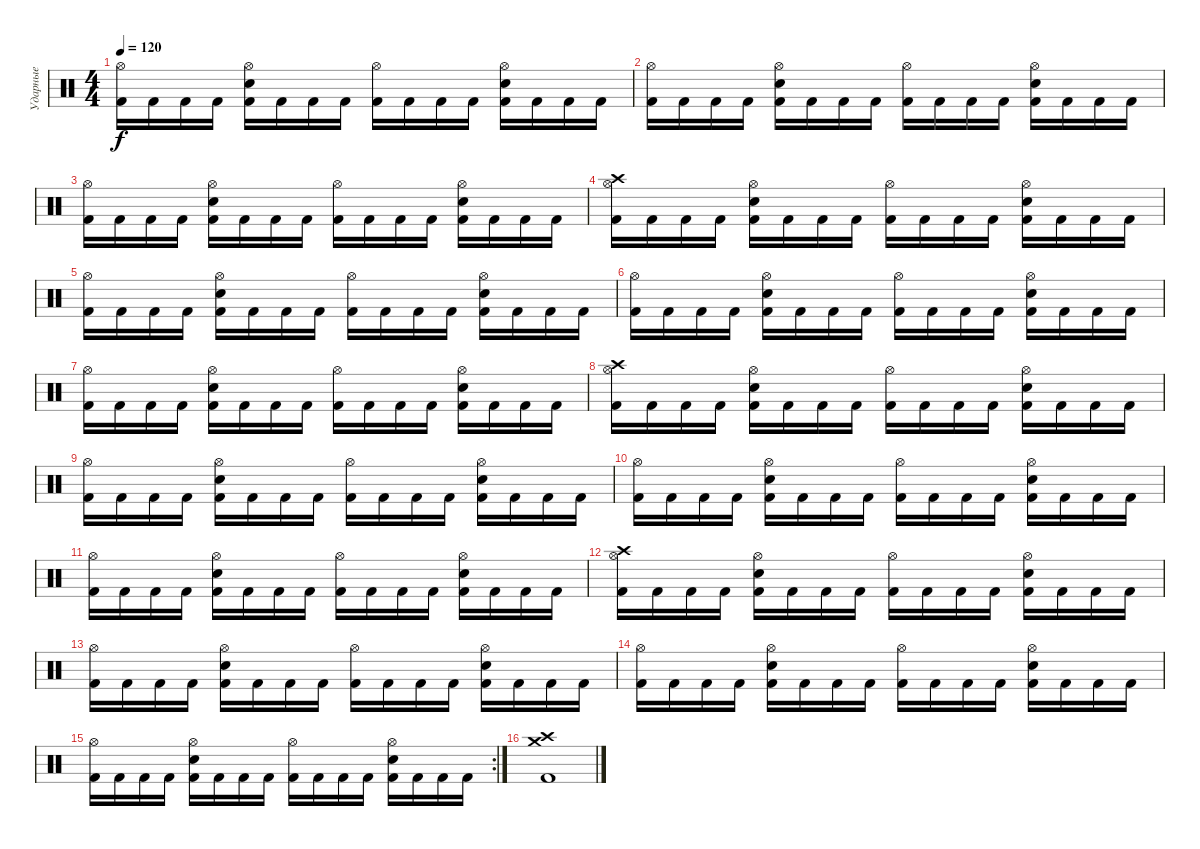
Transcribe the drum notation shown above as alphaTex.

\track ("Ударные" "Ударные") {instrument percussion}
\staff {score}
\articulation defaults
\ts (4 4)
\tempo 120
\clef neutral
\ks c
("Hi-Hat (open)" "Kick (hit) 2").16{dy f} "Kick (hit) 2".16 "Kick (hit) 2".16 "Kick (hit) 2".16 ("Hi-Hat (open)" "Snare (hit) 2" "Kick (hit) 2").16 "Kick (hit) 2".16 "Kick (hit) 2".16 "Kick (hit) 2".16 ("Hi-Hat (open)" "Kick (hit) 2").16 "Kick (hit) 2".16 "Kick (hit) 2".16 "Kick (hit) 2".16 ("Hi-Hat (open)" "Snare (hit) 2" "Kick (hit) 2").16 "Kick (hit) 2".16 "Kick (hit) 2".16 "Kick (hit) 2".16 |
("Hi-Hat (open)" "Kick (hit) 2").16 "Kick (hit) 2".16 "Kick (hit) 2".16 "Kick (hit) 2".16 ("Hi-Hat (open)" "Snare (hit) 2" "Kick (hit) 2").16 "Kick (hit) 2".16 "Kick (hit) 2".16 "Kick (hit) 2".16 ("Hi-Hat (open)" "Kick (hit) 2").16 "Kick (hit) 2".16 "Kick (hit) 2".16 "Kick (hit) 2".16 ("Hi-Hat (open)" "Snare (hit) 2" "Kick (hit) 2").16 "Kick (hit) 2".16 "Kick (hit) 2".16 "Kick (hit) 2".16 |
("Hi-Hat (open)" "Kick (hit) 2").16 "Kick (hit) 2".16 "Kick (hit) 2".16 "Kick (hit) 2".16 ("Hi-Hat (open)" "Snare (hit) 2" "Kick (hit) 2").16 "Kick (hit) 2".16 "Kick (hit) 2".16 "Kick (hit) 2".16 ("Hi-Hat (open)" "Kick (hit) 2").16 "Kick (hit) 2".16 "Kick (hit) 2".16 "Kick (hit) 2".16 ("Hi-Hat (open)" "Snare (hit) 2" "Kick (hit) 2").16 "Kick (hit) 2".16 "Kick (hit) 2".16 "Kick (hit) 2".16 |
("Hi-Hat (open)" "Crash high (hit)" "Kick (hit) 2").16 "Kick (hit) 2".16 "Kick (hit) 2".16 "Kick (hit) 2".16 ("Hi-Hat (open)" "Snare (hit) 2" "Kick (hit) 2").16 "Kick (hit) 2".16 "Kick (hit) 2".16 "Kick (hit) 2".16 ("Hi-Hat (open)" "Kick (hit) 2").16 "Kick (hit) 2".16 "Kick (hit) 2".16 "Kick (hit) 2".16 ("Hi-Hat (open)" "Snare (hit) 2" "Kick (hit) 2").16 "Kick (hit) 2".16 "Kick (hit) 2".16 "Kick (hit) 2".16 |
("Hi-Hat (open)" "Kick (hit) 2").16 "Kick (hit) 2".16 "Kick (hit) 2".16 "Kick (hit) 2".16 ("Hi-Hat (open)" "Snare (hit) 2" "Kick (hit) 2").16 "Kick (hit) 2".16 "Kick (hit) 2".16 "Kick (hit) 2".16 ("Hi-Hat (open)" "Kick (hit) 2").16 "Kick (hit) 2".16 "Kick (hit) 2".16 "Kick (hit) 2".16 ("Hi-Hat (open)" "Snare (hit) 2" "Kick (hit) 2").16 "Kick (hit) 2".16 "Kick (hit) 2".16 "Kick (hit) 2".16 |
("Hi-Hat (open)" "Kick (hit) 2").16 "Kick (hit) 2".16 "Kick (hit) 2".16 "Kick (hit) 2".16 ("Hi-Hat (open)" "Snare (hit) 2" "Kick (hit) 2").16 "Kick (hit) 2".16 "Kick (hit) 2".16 "Kick (hit) 2".16 ("Hi-Hat (open)" "Kick (hit) 2").16 "Kick (hit) 2".16 "Kick (hit) 2".16 "Kick (hit) 2".16 ("Hi-Hat (open)" "Snare (hit) 2" "Kick (hit) 2").16 "Kick (hit) 2".16 "Kick (hit) 2".16 "Kick (hit) 2".16 |
("Hi-Hat (open)" "Kick (hit) 2").16 "Kick (hit) 2".16 "Kick (hit) 2".16 "Kick (hit) 2".16 ("Hi-Hat (open)" "Snare (hit) 2" "Kick (hit) 2").16 "Kick (hit) 2".16 "Kick (hit) 2".16 "Kick (hit) 2".16 ("Hi-Hat (open)" "Kick (hit) 2").16 "Kick (hit) 2".16 "Kick (hit) 2".16 "Kick (hit) 2".16 ("Hi-Hat (open)" "Snare (hit) 2" "Kick (hit) 2").16 "Kick (hit) 2".16 "Kick (hit) 2".16 "Kick (hit) 2".16 |
("Hi-Hat (open)" "Crash high (hit)" "Kick (hit) 2").16 "Kick (hit) 2".16 "Kick (hit) 2".16 "Kick (hit) 2".16 ("Hi-Hat (open)" "Snare (hit) 2" "Kick (hit) 2").16 "Kick (hit) 2".16 "Kick (hit) 2".16 "Kick (hit) 2".16 ("Hi-Hat (open)" "Kick (hit) 2").16 "Kick (hit) 2".16 "Kick (hit) 2".16 "Kick (hit) 2".16 ("Hi-Hat (open)" "Snare (hit) 2" "Kick (hit) 2").16 "Kick (hit) 2".16 "Kick (hit) 2".16 "Kick (hit) 2".16 |
("Hi-Hat (open)" "Kick (hit) 2").16 "Kick (hit) 2".16 "Kick (hit) 2".16 "Kick (hit) 2".16 ("Hi-Hat (open)" "Snare (hit) 2" "Kick (hit) 2").16 "Kick (hit) 2".16 "Kick (hit) 2".16 "Kick (hit) 2".16 ("Hi-Hat (open)" "Kick (hit) 2").16 "Kick (hit) 2".16 "Kick (hit) 2".16 "Kick (hit) 2".16 ("Hi-Hat (open)" "Snare (hit) 2" "Kick (hit) 2").16 "Kick (hit) 2".16 "Kick (hit) 2".16 "Kick (hit) 2".16 |
("Hi-Hat (open)" "Kick (hit) 2").16 "Kick (hit) 2".16 "Kick (hit) 2".16 "Kick (hit) 2".16 ("Hi-Hat (open)" "Snare (hit) 2" "Kick (hit) 2").16 "Kick (hit) 2".16 "Kick (hit) 2".16 "Kick (hit) 2".16 ("Hi-Hat (open)" "Kick (hit) 2").16 "Kick (hit) 2".16 "Kick (hit) 2".16 "Kick (hit) 2".16 ("Hi-Hat (open)" "Snare (hit) 2" "Kick (hit) 2").16 "Kick (hit) 2".16 "Kick (hit) 2".16 "Kick (hit) 2".16 |
("Hi-Hat (open)" "Kick (hit) 2").16 "Kick (hit) 2".16 "Kick (hit) 2".16 "Kick (hit) 2".16 ("Hi-Hat (open)" "Snare (hit) 2" "Kick (hit) 2").16 "Kick (hit) 2".16 "Kick (hit) 2".16 "Kick (hit) 2".16 ("Hi-Hat (open)" "Kick (hit) 2").16 "Kick (hit) 2".16 "Kick (hit) 2".16 "Kick (hit) 2".16 ("Hi-Hat (open)" "Snare (hit) 2" "Kick (hit) 2").16 "Kick (hit) 2".16 "Kick (hit) 2".16 "Kick (hit) 2".16 |
("Hi-Hat (open)" "Crash high (hit)" "Kick (hit) 2").16 "Kick (hit) 2".16 "Kick (hit) 2".16 "Kick (hit) 2".16 ("Hi-Hat (open)" "Snare (hit) 2" "Kick (hit) 2").16 "Kick (hit) 2".16 "Kick (hit) 2".16 "Kick (hit) 2".16 ("Hi-Hat (open)" "Kick (hit) 2").16 "Kick (hit) 2".16 "Kick (hit) 2".16 "Kick (hit) 2".16 ("Hi-Hat (open)" "Snare (hit) 2" "Kick (hit) 2").16 "Kick (hit) 2".16 "Kick (hit) 2".16 "Kick (hit) 2".16 |
("Hi-Hat (open)" "Kick (hit) 2").16 "Kick (hit) 2".16 "Kick (hit) 2".16 "Kick (hit) 2".16 ("Hi-Hat (open)" "Snare (hit) 2" "Kick (hit) 2").16 "Kick (hit) 2".16 "Kick (hit) 2".16 "Kick (hit) 2".16 ("Hi-Hat (open)" "Kick (hit) 2").16 "Kick (hit) 2".16 "Kick (hit) 2".16 "Kick (hit) 2".16 ("Hi-Hat (open)" "Snare (hit) 2" "Kick (hit) 2").16 "Kick (hit) 2".16 "Kick (hit) 2".16 "Kick (hit) 2".16 |
("Hi-Hat (open)" "Kick (hit) 2").16 "Kick (hit) 2".16 "Kick (hit) 2".16 "Kick (hit) 2".16 ("Hi-Hat (open)" "Snare (hit) 2" "Kick (hit) 2").16 "Kick (hit) 2".16 "Kick (hit) 2".16 "Kick (hit) 2".16 ("Hi-Hat (open)" "Kick (hit) 2").16 "Kick (hit) 2".16 "Kick (hit) 2".16 "Kick (hit) 2".16 ("Hi-Hat (open)" "Snare (hit) 2" "Kick (hit) 2").16 "Kick (hit) 2".16 "Kick (hit) 2".16 "Kick (hit) 2".16 |
\rc 2
("Hi-Hat (open)" "Kick (hit) 2").16 "Kick (hit) 2".16 "Kick (hit) 2".16 "Kick (hit) 2".16 ("Hi-Hat (open)" "Snare (hit) 2" "Kick (hit) 2").16 "Kick (hit) 2".16 "Kick (hit) 2".16 "Kick (hit) 2".16 ("Hi-Hat (open)" "Kick (hit) 2").16 "Kick (hit) 2".16 "Kick (hit) 2".16 "Kick (hit) 2".16 ("Hi-Hat (open)" "Snare (hit) 2" "Kick (hit) 2").16 "Kick (hit) 2".16 "Kick (hit) 2".16 "Kick (hit) 2".16 |
("Crash high (hit)" "Crash medium (hit)" "Kick (hit) 2").1
